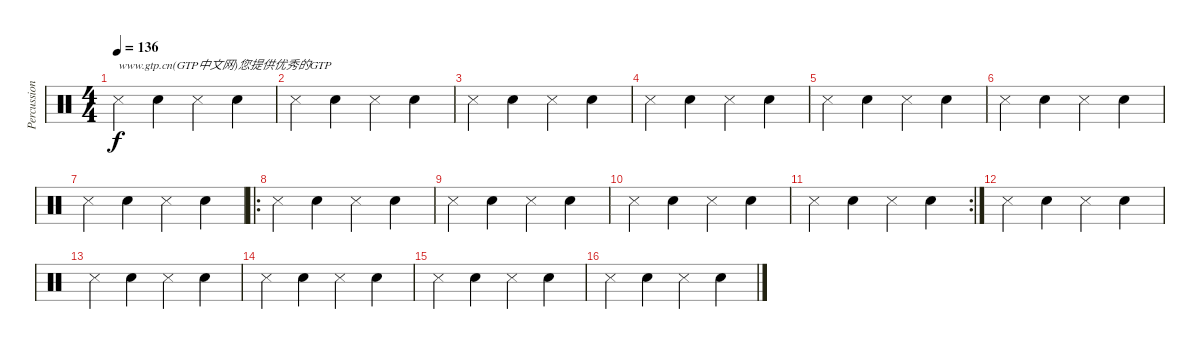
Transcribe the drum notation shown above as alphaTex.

\track ("Percussions" "Percussion") {instrument percussion}
\staff {score}
\articulation defaults
\ts (4 4)
\tempo 136
\clef neutral
\ks c "Snare (side stick) 3".4{txt "www.gtp.cn(GTP中文网)您提供优秀的GTP" dy f} "Electric Snare (hit)".4 "Snare (side stick) 3".4 "Electric Snare (hit)".4
|
"Snare (side stick) 3".4 "Electric Snare (hit)".4 "Snare (side stick) 3".4 "Electric Snare (hit)".4 |
"Snare (side stick) 3".4 "Electric Snare (hit)".4 "Snare (side stick) 3".4 "Electric Snare (hit)".4 |
"Snare (side stick) 3".4 "Electric Snare (hit)".4 "Snare (side stick) 3".4 "Electric Snare (hit)".4 |
"Snare (side stick) 3".4 "Electric Snare (hit)".4 "Snare (side stick) 3".4 "Electric Snare (hit)".4 |
"Snare (side stick) 3".4 "Electric Snare (hit)".4 "Snare (side stick) 3".4 "Electric Snare (hit)".4 |
"Snare (side stick) 3".4 "Electric Snare (hit)".4 "Snare (side stick) 3".4 "Electric Snare (hit)".4 |
\ro "Snare (side stick) 3".4 "Electric Snare (hit)".4 "Snare (side stick) 3".4 "Electric Snare (hit)".4
|
"Snare (side stick) 3".4 "Electric Snare (hit)".4 "Snare (side stick) 3".4 "Electric Snare (hit)".4 |
"Snare (side stick) 3".4 "Electric Snare (hit)".4 "Snare (side stick) 3".4 "Electric Snare (hit)".4 |
\rc 2 "Snare (side stick) 3".4 "Electric Snare (hit)".4 "Snare (side stick) 3".4 "Electric Snare (hit)".4
|
"Snare (side stick) 3".4 "Electric Snare (hit)".4 "Snare (side stick) 3".4 "Electric Snare (hit)".4 |
"Snare (side stick) 3".4 "Electric Snare (hit)".4 "Snare (side stick) 3".4 "Electric Snare (hit)".4 |
"Snare (side stick) 3".4 "Electric Snare (hit)".4 "Snare (side stick) 3".4 "Electric Snare (hit)".4 |
"Snare (side stick) 3".4 "Electric Snare (hit)".4 "Snare (side stick) 3".4 "Electric Snare (hit)".4 |
"Snare (side stick) 3".4 "Electric Snare (hit)".4 "Snare (side stick) 3".4 "Electric Snare (hit)".4
